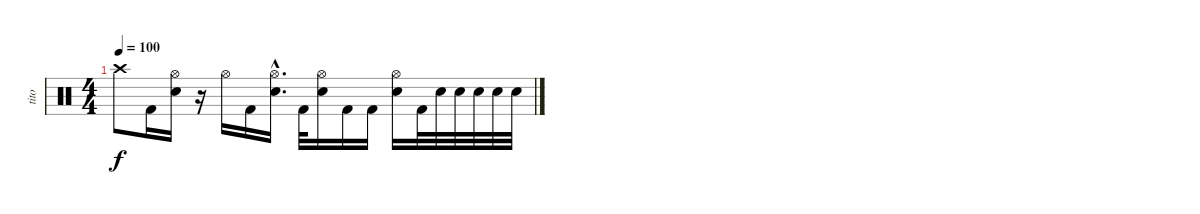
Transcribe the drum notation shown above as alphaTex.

\track ("tito" "tito") {instrument percussion}
\staff {score}
\articulation defaults
\ts (4 4)
\tempo 100
\clef neutral
\ks c "Crash high (hit)".8{dy f} "Kick (hit) 2".16
("Hi-Hat (open)" "Snare (hit) 2").16 r.16 "Hi-Hat (open)".16 "Kick (hit) 2".16 ("Hi-Hat (open)"{hac} "Snare (hit) 2"{hac}).16{d} "Kick (hit) 2".32 ("Hi-Hat (open)" "Snare (hit) 2").16 "Kick (hit) 2".16 "Kick (hit) 2".16 ("Hi-Hat (open)" "Snare (hit) 2").16 "Kick (hit) 2".32 "Snare (hit) 2".32 "Snare (hit) 2".32 "Snare (hit) 2".32 "Snare (hit) 2".32 "Snare (hit) 2".32
